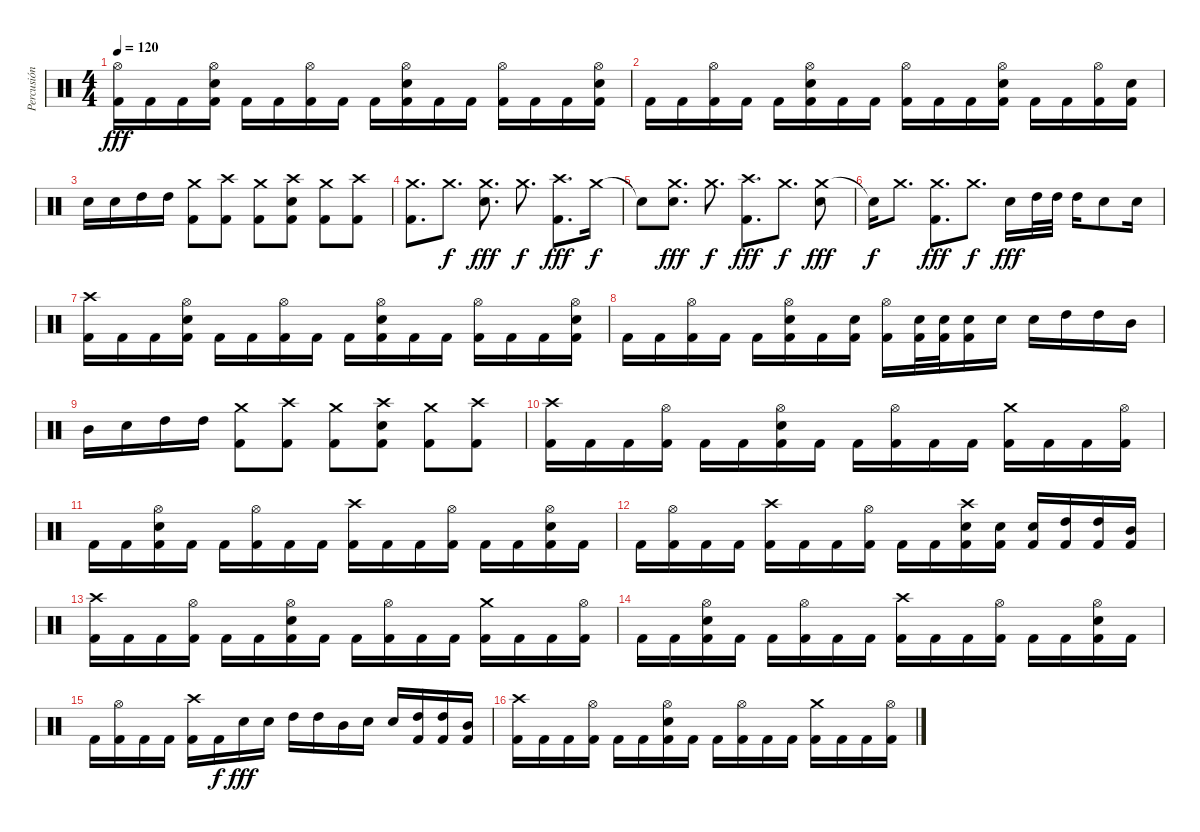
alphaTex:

\track ("Percusión" "Percusión") {instrument percussion}
\staff {score}
\articulation defaults
\ts (4 4)
\tempo 120
\clef neutral
\ks c
("Hi-Hat (open)" "Kick (hit) 2").16{dy fff} "Kick (hit) 2".16 "Kick (hit) 2".16 ("Hi-Hat (open)" "Electric Snare (hit)" "Kick (hit) 2").16 "Kick (hit) 2".16 "Kick (hit) 2".16 ("Hi-Hat (open)" "Kick (hit) 2").16 "Kick (hit) 2".16 "Kick (hit) 2".16 ("Hi-Hat (open)" "Electric Snare (hit)" "Kick (hit) 2").16 "Kick (hit) 2".16 "Kick (hit) 2".16 ("Hi-Hat (open)" "Kick (hit) 2").16 "Kick (hit) 2".16 "Kick (hit) 2".16 ("Hi-Hat (open)" "Electric Snare (hit)" "Kick (hit) 2").16 |
"Kick (hit) 2".16 "Kick (hit) 2".16 ("Hi-Hat (open)" "Kick (hit) 2").16 "Kick (hit) 2".16 "Kick (hit) 2".16 ("Hi-Hat (open)" "Electric Snare (hit)" "Kick (hit) 2").16 "Kick (hit) 2".16 "Kick (hit) 2".16 ("Hi-Hat (open)" "Kick (hit) 2").16 "Kick (hit) 2".16 "Kick (hit) 2".16 ("Hi-Hat (open)" "Electric Snare (hit)" "Kick (hit) 2").16 "Kick (hit) 2".16 "Kick (hit) 2".16 ("Hi-Hat (open)" "Kick (hit) 2").16 ("Electric Snare (hit)" "Kick (hit) 2").16 |
"Electric Snare (hit)".16 "Electric Snare (hit)".16 "High Tom (hit)".16 "High Tom (hit)".16 ("Crash medium (hit)" "Kick (hit) 2").8 ("Crash high (hit)" "Kick (hit) 2").8 ("Crash medium (hit)" "Kick (hit) 2").8 ("Crash high (hit)" "Electric Snare (hit)" "Kick (hit) 2").8 ("Crash medium (hit)" "Kick (hit) 2").8 ("Crash high (hit)" "Kick (hit) 2").8 |
("Crash medium (hit)" "Kick (hit) 2").8{d} "Crash medium (hit)".8{d dy f} ("Crash medium (hit)" "Electric Snare (hit)").8{d dy fff} "Crash medium (hit)".8{d dy f} ("Crash high (hit)" "Kick (hit) 2").8{d dy fff} "Crash medium (hit)".16{dy f} |
"Snare (hit)"{t}.8 ("Crash medium (hit)" "Electric Snare (hit)").8{d dy fff} "Crash medium (hit)".8{d dy f} ("Crash high (hit)" "Kick (hit) 2").8{d dy fff} "Crash medium (hit)".8{d dy f} ("Crash medium (hit)" "Electric Snare (hit)").8{dy fff} |
"Snare (hit)"{t}.16{dy f} "Crash medium (hit)".8{d} ("Crash medium (hit)" "Kick (hit) 2").8{d dy fff} "Crash medium (hit)".8{d dy f} "Electric Snare (hit)".16{dy fff} "High Tom (hit)".32 "High Tom (hit)".32 "High Tom (hit)".16 "Electric Snare (hit)".8 "Electric Snare (hit)".16 |
("Crash high (hit)" "Kick (hit) 2").16 "Kick (hit) 2".16 "Kick (hit) 2".16 ("Hi-Hat (open)" "Electric Snare (hit)" "Kick (hit) 2").16 "Kick (hit) 2".16 "Kick (hit) 2".16 ("Hi-Hat (open)" "Kick (hit) 2").16 "Kick (hit) 2".16 "Kick (hit) 2".16 ("Hi-Hat (open)" "Electric Snare (hit)" "Kick (hit) 2").16 "Kick (hit) 2".16 "Kick (hit) 2".16 ("Hi-Hat (open)" "Kick (hit) 2").16 "Kick (hit) 2".16 "Kick (hit) 2".16 ("Hi-Hat (open)" "Electric Snare (hit)" "Kick (hit) 2").16 |
"Kick (hit) 2".16 "Kick (hit) 2".16 ("Hi-Hat (open)" "Kick (hit) 2").16 "Kick (hit) 2".16 "Kick (hit) 2".16 ("Hi-Hat (open)" "Electric Snare (hit)" "Kick (hit) 2").16 "Kick (hit) 2".16 ("Electric Snare (hit)" "Kick (hit) 2").16 ("Hi-Hat (open)" "Kick (hit) 2").16 ("Electric Snare (hit)" "Kick (hit) 2").32 ("Electric Snare (hit)" "Kick (hit) 2").32 ("Electric Snare (hit)" "Kick (hit) 2").16 "Electric Snare (hit)".16 "Electric Snare (hit)".16 "High Tom (hit)".16 "High Tom (hit)".16 "Mid Tom (hit)".16 |
"Mid Tom (hit)".16 "Electric Snare (hit)".16 "High Tom (hit)".16 "High Tom (hit)".16 ("Crash medium (hit)" "Kick (hit) 2").8 ("Crash high (hit)" "Kick (hit) 2").8 ("Crash medium (hit)" "Kick (hit) 2").8 ("Crash high (hit)" "Electric Snare (hit)" "Kick (hit) 2").8 ("Crash medium (hit)" "Kick (hit) 2").8 ("Crash high (hit)" "Kick (hit) 2").8 |
("Crash high (hit)" "Kick (hit) 2").16 "Kick (hit) 2".16 "Kick (hit) 2".16 ("Hi-Hat (open)" "Kick (hit) 2").16 "Kick (hit) 2".16 "Kick (hit) 2".16 ("Hi-Hat (open)" "Electric Snare (hit)" "Kick (hit) 2").16 "Kick (hit) 2".16 "Kick (hit) 2".16 ("Hi-Hat (open)" "Kick (hit) 2").16 "Kick (hit) 2".16 "Kick (hit) 2".16 ("Crash medium (hit)" "Kick (hit) 2").16 "Kick (hit) 2".16 "Kick (hit) 2".16 ("Hi-Hat (open)" "Kick (hit) 2").16 |
"Kick (hit) 2".16 "Kick (hit) 2".16 ("Hi-Hat (open)" "Electric Snare (hit)" "Kick (hit) 2").16 "Kick (hit) 2".16 "Kick (hit) 2".16 ("Hi-Hat (open)" "Kick (hit) 2").16 "Kick (hit) 2".16 "Kick (hit) 2".16 ("Crash high (hit)" "Kick (hit) 2").16 "Kick (hit) 2".16 "Kick (hit) 2".16 ("Hi-Hat (open)" "Kick (hit) 2").16 "Kick (hit) 2".16 "Kick (hit) 2".16 ("Hi-Hat (open)" "Electric Snare (hit)" "Kick (hit) 2").16 "Kick (hit) 2".16 |
"Kick (hit) 2".16 ("Hi-Hat (open)" "Kick (hit) 2").16 "Kick (hit) 2".16 "Kick (hit) 2".16 ("Crash high (hit)" "Kick (hit) 2").16 "Kick (hit) 2".16 "Kick (hit) 2".16 ("Hi-Hat (open)" "Kick (hit) 2").16 "Kick (hit) 2".16 "Kick (hit) 2".16 ("Crash high (hit)" "Electric Snare (hit)" "Kick (hit) 2").16 ("Electric Snare (hit)" "Kick (hit) 2").16 ("Electric Snare (hit)" "Kick (hit) 2").16 ("High Tom (hit)" "Kick (hit) 2").16 ("High Tom (hit)" "Kick (hit) 2").16 ("Mid Tom (hit)" "Kick (hit) 2").16 |
("Crash high (hit)" "Kick (hit) 2").16 "Kick (hit) 2".16 "Kick (hit) 2".16 ("Hi-Hat (open)" "Kick (hit) 2").16 "Kick (hit) 2".16 "Kick (hit) 2".16 ("Hi-Hat (open)" "Electric Snare (hit)" "Kick (hit) 2").16 "Kick (hit) 2".16 "Kick (hit) 2".16 ("Hi-Hat (open)" "Kick (hit) 2").16 "Kick (hit) 2".16 "Kick (hit) 2".16 ("Crash medium (hit)" "Kick (hit) 2").16 "Kick (hit) 2".16 "Kick (hit) 2".16 ("Hi-Hat (open)" "Kick (hit) 2").16 |
"Kick (hit) 2".16 "Kick (hit) 2".16 ("Hi-Hat (open)" "Electric Snare (hit)" "Kick (hit) 2").16 "Kick (hit) 2".16 "Kick (hit) 2".16 ("Hi-Hat (open)" "Kick (hit) 2").16 "Kick (hit) 2".16 "Kick (hit) 2".16 ("Crash high (hit)" "Kick (hit) 2").16 "Kick (hit) 2".16 "Kick (hit) 2".16 ("Hi-Hat (open)" "Kick (hit) 2").16 "Kick (hit) 2".16 "Kick (hit) 2".16 ("Hi-Hat (open)" "Electric Snare (hit)" "Kick (hit) 2").16 "Kick (hit) 2".16 |
"Kick (hit) 2".16 ("Hi-Hat (open)" "Kick (hit) 2").16 "Kick (hit) 2".16 "Kick (hit) 2".16 ("Crash high (hit)" "Kick (hit) 2").16 "Kick (hit) 2".16{dy f} "Electric Snare (hit)".16{dy fff} "Electric Snare (hit)".16 "High Tom (hit)".16 "High Tom (hit)".16 "Mid Tom (hit)".16 "Electric Snare (hit)".16 "Electric Snare (hit)".16 ("High Tom (hit)" "Kick (hit) 2").16 ("High Tom (hit)" "Kick (hit) 2").16 ("Mid Tom (hit)" "Kick (hit) 2").16 |
("Crash high (hit)" "Kick (hit) 2").16 "Kick (hit) 2".16 "Kick (hit) 2".16 ("Hi-Hat (open)" "Kick (hit) 2").16 "Kick (hit) 2".16 "Kick (hit) 2".16 ("Hi-Hat (open)" "Electric Snare (hit)" "Kick (hit) 2").16 "Kick (hit) 2".16 "Kick (hit) 2".16 ("Hi-Hat (open)" "Kick (hit) 2").16 "Kick (hit) 2".16 "Kick (hit) 2".16 ("Crash medium (hit)" "Kick (hit) 2").16 "Kick (hit) 2".16 "Kick (hit) 2".16 ("Hi-Hat (open)" "Kick (hit) 2").16
